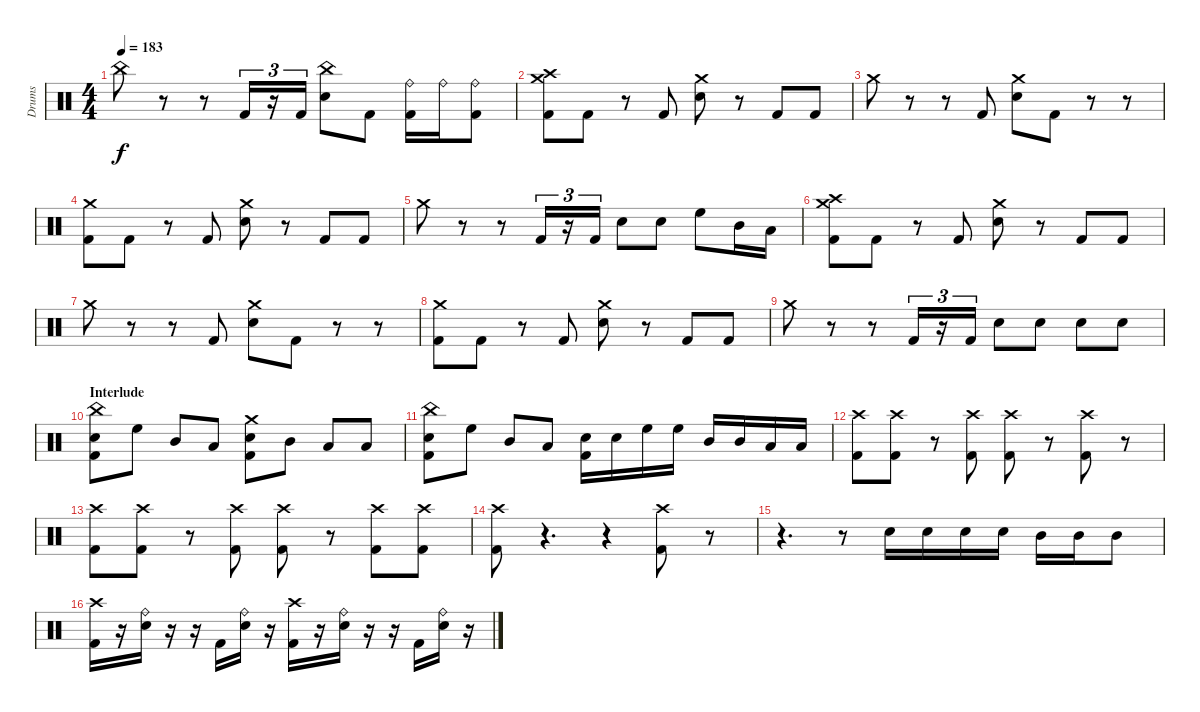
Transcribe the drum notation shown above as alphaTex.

\track ("Drums" "Drums") {instrument percussion}
\staff {score}
\articulation defaults
\ts (4 4)
\tempo 183
\clef neutral
\ks c "China (hit)".8{dy f}
r.8 r.8 "Kick (hit) 2".16{tu (3 2)} r.16{tu (3 2)} "Kick (hit) 2".16{tu (3 2)} ("China (hit)" "Electric Snare (hit)").8 "Kick (hit) 2".8 ("Ride (bell)" "Kick (hit) 2").16 "Ride (bell)".16 ("Ride (bell)" "Kick (hit) 2").8 |
\section ("" "")
("Crash medium (hit)" "Crash high (hit)" "Kick (hit) 2").8 "Kick (hit) 2".8 r.8 "Kick (hit) 2".8 ("Crash medium (hit)" "Electric Snare (hit)").8 r.8 "Kick (hit) 2".8 "Kick (hit) 2".8 |
"Crash medium (hit)".8 r.8 r.8 "Kick (hit) 2".8 ("Crash medium (hit)" "Electric Snare (hit)").8 "Kick (hit) 2".8 r.8 r.8 |
("Crash medium (hit)" "Kick (hit) 2").8 "Kick (hit) 2".8 r.8 "Kick (hit) 2".8 ("Crash medium (hit)" "Electric Snare (hit)").8 r.8 "Kick (hit) 2".8 "Kick (hit) 2".8 |
"Crash medium (hit)".8 r.8 r.8 "Kick (hit) 2".16{tu (3 2)} r.16{tu (3 2)} "Kick (hit) 2".16{tu (3 2)} "Electric Snare (hit)".8 "Electric Snare (hit)".8 "High Floor Tom (hit)".8 "Mid Tom (hit)".16 "Low Tom (hit)".16 |
("Crash medium (hit)" "Crash high (hit)" "Kick (hit) 2").8 "Kick (hit) 2".8 r.8 "Kick (hit) 2".8 ("Crash medium (hit)" "Electric Snare (hit)").8 r.8 "Kick (hit) 2".8 "Kick (hit) 2".8 |
"Crash medium (hit)".8 r.8 r.8 "Kick (hit) 2".8 ("Crash medium (hit)" "Electric Snare (hit)").8 "Kick (hit) 2".8 r.8 r.8 |
("Crash medium (hit)" "Kick (hit) 2").8 "Kick (hit) 2".8 r.8 "Kick (hit) 2".8 ("Crash medium (hit)" "Electric Snare (hit)").8 r.8 "Kick (hit) 2".8 "Kick (hit) 2".8 |
"Crash medium (hit)".8 r.8 r.8 "Kick (hit) 2".16{tu (3 2)} r.16{tu (3 2)} "Kick (hit) 2".16{tu (3 2)} "Electric Snare (hit)".8 "Electric Snare (hit)".8 "Electric Snare (hit)".8 "Electric Snare (hit)".8 |
\section ("" "Interlude")
("China (hit)" "Electric Snare (hit)" "Kick (hit) 2").8 "High Floor Tom (hit)".8 "Mid Tom (hit)".8 "Low Tom (hit)".8 ("Crash medium (hit)" "Electric Snare (hit)" "Kick (hit) 2").8 "Mid Tom (hit)".8 "Low Tom (hit)".8 "Low Floor Tom (hit)".8 |
("China (hit)" "Electric Snare (hit)" "Kick (hit) 2").8 "High Floor Tom (hit)".8 "Mid Tom (hit)".8 "Low Tom (hit)".8 ("Electric Snare (hit)" "Kick (hit) 2").16 "Electric Snare (hit)".16 "High Floor Tom (hit)".16 "High Floor Tom (hit)".16 "Mid Tom (hit)".16 "Mid Tom (hit)".16 "Low Tom (hit)".16 "Low Tom (hit)".16 |
("Crash high (hit)" "Kick (hit) 2").8 ("Crash high (hit)" "Kick (hit) 2").8 r.8{volume 0} ("Crash high (hit)" "Kick (hit) 2").8{volume 16} ("Crash high (hit)" "Kick (hit) 2").8 r.8{volume 0} ("Crash high (hit)" "Kick (hit) 2").8{volume 16} r.8{volume 0} |
("Crash high (hit)" "Kick (hit) 2").8{volume 16} ("Crash high (hit)" "Kick (hit) 2").8 r.8{volume 0} ("Crash high (hit)" "Kick (hit) 2").8{volume 16} ("Crash high (hit)" "Kick (hit) 2").8 r.8{volume 0} ("Crash high (hit)" "Kick (hit) 2").8{volume 16} ("Crash high (hit)" "Kick (hit) 2").8 |
("Crash high (hit)" "Kick (hit) 2").8 r.4{d volume 0} r.4 ("Crash high (hit)" "Kick (hit) 2").8{volume 16} r.8{volume 0} |
r.4{d} r.8{volume 16} "Electric Snare (hit)".16 "Electric Snare (hit)".16 "Electric Snare (hit)".16 "Electric Snare (hit)".16 "Mid Tom (hit)".16 "Mid Tom (hit)".16 "Mid Tom (hit)".8 |
("Crash high (hit)" "Kick (hit) 2").16 r.16 ("Ride (bell)" "Electric Snare (hit)").16 r.16 r.16 "Kick (hit) 2".16 ("Ride (bell)" "Electric Snare (hit)").16 r.16 ("Crash high (hit)" "Kick (hit) 2").16 r.16 ("Ride (bell)" "Electric Snare (hit)").16 r.16 r.16 "Kick (hit) 2".16 ("Ride (bell)" "Electric Snare (hit)").16 r.16
